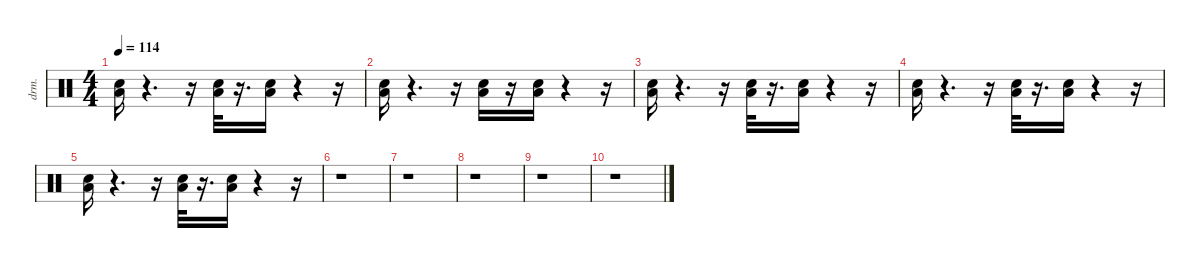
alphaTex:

\defaultSystemsLayout 4
\hideDynamics
\bracketExtendMode nobrackets
\otherSystemsTrackNameOrientation horizontal
\track ("Taiko drum" "drm.") {instrument percussion}
\staff {score}
\articulation defaults
\ts (4 4)
\tempo 114
\clef neutral
\ks c
("Low Floor Tom (hit)" "Snare (hit) 2").16{dy fff} r.4{d} r.16 ("Low Floor Tom (hit)" "Snare (hit) 2").32 r.16{d} ("Low Floor Tom (hit)" "Snare (hit) 2").16 r.4 r.16 |
("Low Floor Tom (hit)" "Snare (hit) 2").16 r.4{d} r.16 ("Low Floor Tom (hit)" "Snare (hit) 2").16 r.16 ("Snare (hit) 2" "Low Floor Tom (hit)").16 r.4 r.16 |
("Low Floor Tom (hit)" "Snare (hit) 2").16 r.4{d} r.16 ("Low Floor Tom (hit)" "Snare (hit) 2").32 r.16{d} ("Low Floor Tom (hit)" "Snare (hit) 2").16 r.4 r.16 |
("Low Floor Tom (hit)" "Snare (hit) 2").16 r.4{d} r.16 ("Low Floor Tom (hit)" "Snare (hit) 2").32 r.16{d} ("Low Floor Tom (hit)" "Snare (hit) 2").16 r.4 r.16 |
("Snare (hit) 2" "Low Floor Tom (hit)").16 r.4{d} r.16 ("Snare (hit) 2" "Low Floor Tom (hit)").32 r.16{d} ("Snare (hit) 2" "Low Floor Tom (hit)").16 r.4 r.16 |
r.1 |
r.1 |
r.1 |
r.1 |
r.1
